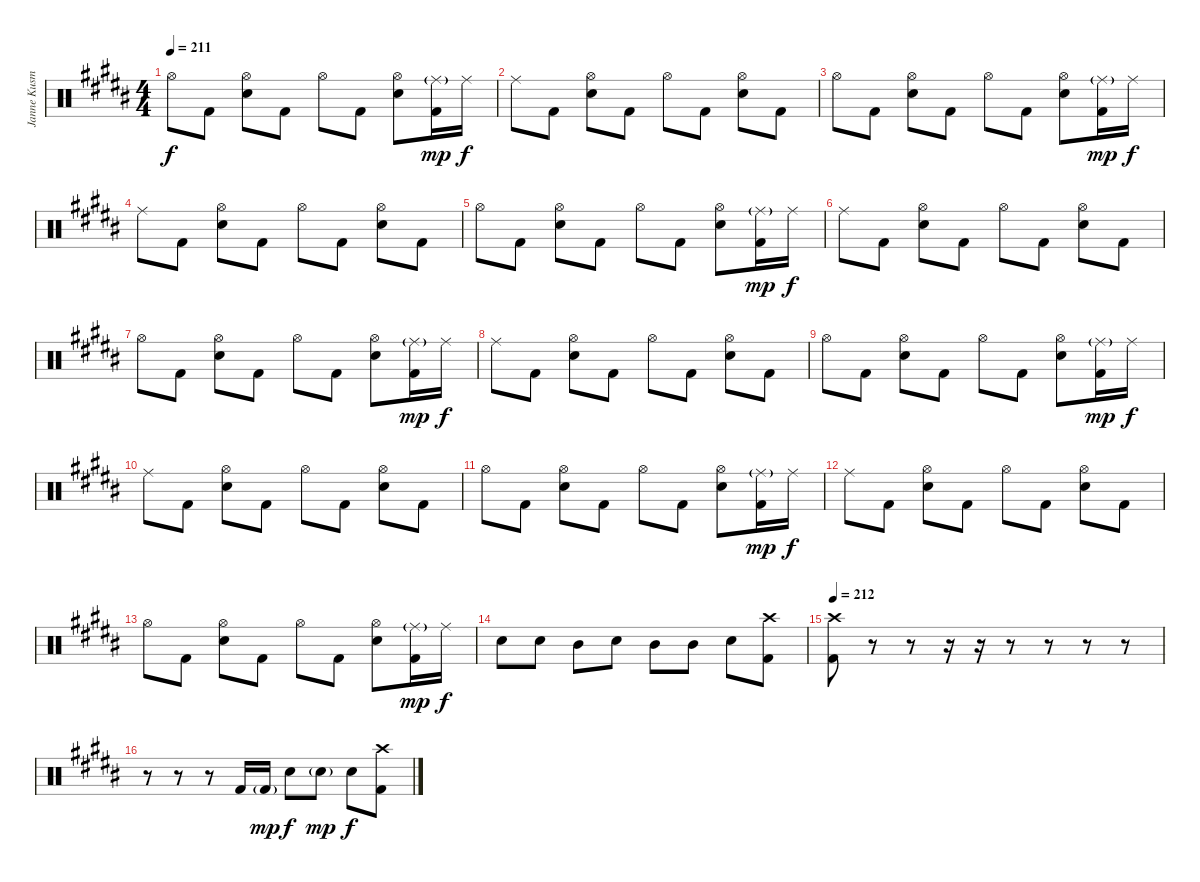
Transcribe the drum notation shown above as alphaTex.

\track ("Janne Kusmin" "Janne Kusm") {instrument percussion}
\staff {score}
\articulation defaults
\ts (4 4)
\tempo 211
\clef neutral
\ks g#minor "Hi-Hat (open)".8{dy f} "Kick (hit) 2".8
("Hi-Hat (open)" "Electric Snare (hit)").8 "Kick (hit) 2".8 "Hi-Hat (open)".8 "Kick (hit) 2".8 ("Hi-Hat (open)" "Electric Snare (hit)").8 ("Ride (middle)"{g} "Kick (hit) 2").16{dy mp} "Ride (middle)".16{dy f} |
"Ride (middle)".8 "Kick (hit) 2".8 ("Hi-Hat (open)" "Electric Snare (hit)").8 "Kick (hit) 2".8 "Hi-Hat (open)".8 "Kick (hit) 2".8 ("Hi-Hat (open)" "Electric Snare (hit)").8 "Kick (hit) 2".8 |
"Hi-Hat (open)".8 "Kick (hit) 2".8 ("Hi-Hat (open)" "Electric Snare (hit)").8 "Kick (hit) 2".8 "Hi-Hat (open)".8 "Kick (hit) 2".8 ("Hi-Hat (open)" "Electric Snare (hit)").8 ("Ride (middle)"{g} "Kick (hit) 2").16{dy mp} "Ride (middle)".16{dy f} |
"Ride (middle)".8 "Kick (hit) 2".8 ("Hi-Hat (open)" "Electric Snare (hit)").8 "Kick (hit) 2".8 "Hi-Hat (open)".8 "Kick (hit) 2".8 ("Hi-Hat (open)" "Electric Snare (hit)").8 "Kick (hit) 2".8 |
"Hi-Hat (open)".8 "Kick (hit) 2".8 ("Hi-Hat (open)" "Electric Snare (hit)").8 "Kick (hit) 2".8 "Hi-Hat (open)".8 "Kick (hit) 2".8 ("Hi-Hat (open)" "Electric Snare (hit)").8 ("Ride (middle)"{g} "Kick (hit) 2").16{dy mp} "Ride (middle)".16{dy f} |
"Ride (middle)".8 "Kick (hit) 2".8 ("Hi-Hat (open)" "Electric Snare (hit)").8 "Kick (hit) 2".8 "Hi-Hat (open)".8 "Kick (hit) 2".8 ("Hi-Hat (open)" "Electric Snare (hit)").8 "Kick (hit) 2".8 |
"Hi-Hat (open)".8 "Kick (hit) 2".8 ("Hi-Hat (open)" "Electric Snare (hit)").8 "Kick (hit) 2".8 "Hi-Hat (open)".8 "Kick (hit) 2".8 ("Hi-Hat (open)" "Electric Snare (hit)").8 ("Ride (middle)"{g} "Kick (hit) 2").16{dy mp} "Ride (middle)".16{dy f} |
"Ride (middle)".8 "Kick (hit) 2".8 ("Hi-Hat (open)" "Electric Snare (hit)").8 "Kick (hit) 2".8 "Hi-Hat (open)".8 "Kick (hit) 2".8 ("Hi-Hat (open)" "Electric Snare (hit)").8 "Kick (hit) 2".8 |
"Hi-Hat (open)".8 "Kick (hit) 2".8 ("Hi-Hat (open)" "Electric Snare (hit)").8 "Kick (hit) 2".8 "Hi-Hat (open)".8 "Kick (hit) 2".8 ("Hi-Hat (open)" "Electric Snare (hit)").8 ("Ride (middle)"{g} "Kick (hit) 2").16{dy mp} "Ride (middle)".16{dy f} |
"Ride (middle)".8 "Kick (hit) 2".8 ("Hi-Hat (open)" "Electric Snare (hit)").8 "Kick (hit) 2".8 "Hi-Hat (open)".8 "Kick (hit) 2".8 ("Hi-Hat (open)" "Electric Snare (hit)").8 "Kick (hit) 2".8 |
"Hi-Hat (open)".8 "Kick (hit) 2".8 ("Hi-Hat (open)" "Electric Snare (hit)").8 "Kick (hit) 2".8 "Hi-Hat (open)".8 "Kick (hit) 2".8 ("Hi-Hat (open)" "Electric Snare (hit)").8 ("Ride (middle)"{g} "Kick (hit) 2").16{dy mp} "Ride (middle)".16{dy f} |
"Ride (middle)".8 "Kick (hit) 2".8 ("Hi-Hat (open)" "Electric Snare (hit)").8 "Kick (hit) 2".8 "Hi-Hat (open)".8 "Kick (hit) 2".8 ("Hi-Hat (open)" "Electric Snare (hit)").8 "Kick (hit) 2".8 |
"Hi-Hat (open)".8 "Kick (hit) 2".8 ("Hi-Hat (open)" "Electric Snare (hit)").8 "Kick (hit) 2".8 "Hi-Hat (open)".8 "Kick (hit) 2".8 ("Hi-Hat (open)" "Electric Snare (hit)").8 ("Ride (middle)"{g} "Kick (hit) 2").16{dy mp} "Ride (middle)".16{dy f} |
"Electric Snare (hit)".8 "Electric Snare (hit)".8 "Mid Tom (hit)".8 "Electric Snare (hit)".8 "Mid Tom (hit)".8 "Mid Tom (hit)".8 "Electric Snare (hit)".8 ("Crash high (hit)" "Kick (hit) 2").8 |
\tempo 212
("Crash high (hit)" "Kick (hit) 2").8 r.8 r.8 r.16 r.16 r.8 r.8 r.8 r.8 |
r.8 r.8 r.8 "Kick (hit) 2".16 "Kick (hit) 2"{g}.16{dy mp} "Electric Snare (hit)".8{dy f} "Electric Snare (hit)"{g}.8{dy mp} "Electric Snare (hit)".8{dy f} ("Crash high (hit)" "Kick (hit) 2").8
